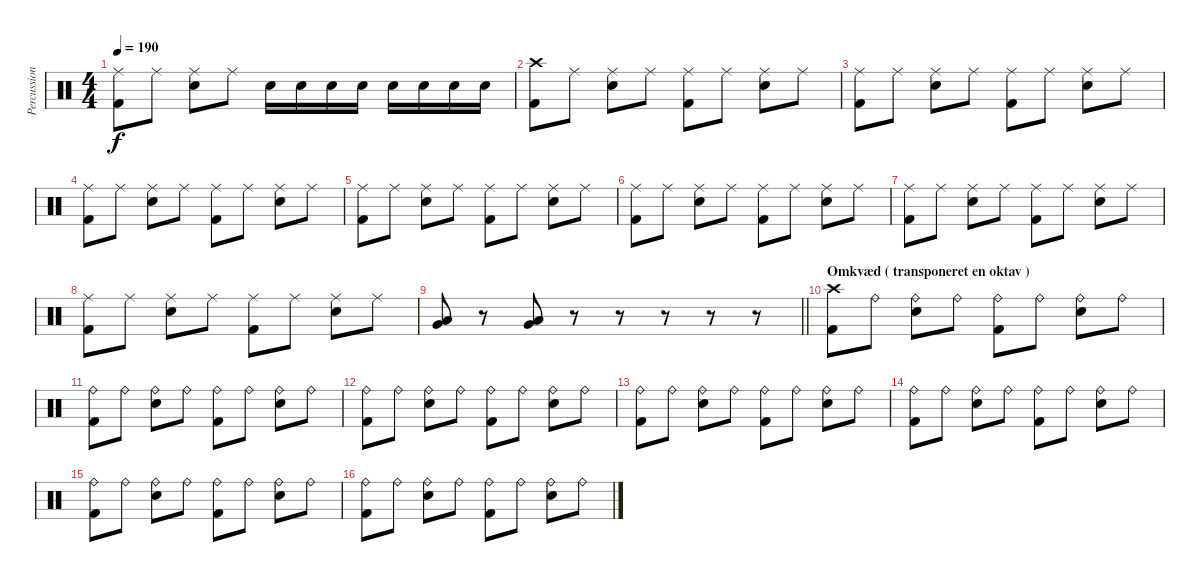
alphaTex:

\track ("Percussion" "Percussion") {instrument percussion}
\staff {score}
\articulation defaults
\ts (4 4)
\tempo 190
\clef neutral
\ks c
("Kick (hit) 2" "Ride (middle)").8{dy f} "Ride (middle)".8 ("Ride (middle)" "Snare (hit) 2").8 "Ride (middle)".8 "Snare (hit) 2".16 "Snare (hit) 2".16 "Snare (hit) 2".16 "Snare (hit) 2".16 "Snare (hit) 2".16 "Snare (hit) 2".16 "Snare (hit) 2".16 "Snare (hit) 2".16 |
("Kick (hit) 2" "Crash high (hit)").8 "Ride (middle)".8 ("Ride (middle)" "Snare (hit) 2").8 "Ride (middle)".8 ("Kick (hit) 2" "Ride (middle)").8 "Ride (middle)".8 ("Ride (middle)" "Snare (hit) 2").8 "Ride (middle)".8 |
("Kick (hit) 2" "Ride (middle)").8 "Ride (middle)".8 ("Ride (middle)" "Snare (hit) 2").8 "Ride (middle)".8 ("Kick (hit) 2" "Ride (middle)").8 "Ride (middle)".8 ("Ride (middle)" "Snare (hit) 2").8 "Ride (middle)".8 |
("Kick (hit) 2" "Ride (middle)").8 "Ride (middle)".8 ("Ride (middle)" "Snare (hit) 2").8 "Ride (middle)".8 ("Kick (hit) 2" "Ride (middle)").8 "Ride (middle)".8 ("Ride (middle)" "Snare (hit) 2").8 "Ride (middle)".8 |
("Kick (hit) 2" "Ride (middle)").8 "Ride (middle)".8 ("Ride (middle)" "Snare (hit) 2").8 "Ride (middle)".8 ("Kick (hit) 2" "Ride (middle)").8 "Ride (middle)".8 ("Ride (middle)" "Snare (hit) 2").8 "Ride (middle)".8 |
("Kick (hit) 2" "Ride (middle)").8 "Ride (middle)".8 ("Ride (middle)" "Snare (hit) 2").8 "Ride (middle)".8 ("Kick (hit) 2" "Ride (middle)").8 "Ride (middle)".8 ("Ride (middle)" "Snare (hit) 2").8 "Ride (middle)".8 |
("Kick (hit) 2" "Ride (middle)").8 "Ride (middle)".8 ("Ride (middle)" "Snare (hit) 2").8 "Ride (middle)".8 ("Kick (hit) 2" "Ride (middle)").8 "Ride (middle)".8 ("Ride (middle)" "Snare (hit) 2").8 "Ride (middle)".8 |
("Kick (hit) 2" "Ride (middle)").8 "Ride (middle)".8 ("Ride (middle)" "Snare (hit) 2").8 "Ride (middle)".8 ("Kick (hit) 2" "Ride (middle)").8 "Ride (middle)".8 ("Ride (middle)" "Snare (hit) 2").8 "Ride (middle)".8 |
\barLineRight lightlight
("Very Low Tom (hit)" "Low Floor Tom (hit)").8 r.8 ("Very Low Tom (hit)" "Low Floor Tom (hit)").8 r.8 r.8 r.8 r.8 r.8 |
\section ("" "Omkvæd ( transponeret en oktav )")
("Kick (hit) 2" "Crash high (hit)").8 "Ride (bell)".8 ("Ride (bell)" "Snare (hit) 2").8 "Ride (bell)".8 ("Kick (hit) 2" "Ride (bell)").8 "Ride (bell)".8 ("Ride (bell)" "Snare (hit) 2").8 "Ride (bell)".8 |
("Kick (hit) 2" "Ride (bell)").8 "Ride (bell)".8 ("Ride (bell)" "Snare (hit) 2").8 "Ride (bell)".8 ("Kick (hit) 2" "Ride (bell)").8 "Ride (bell)".8 ("Ride (bell)" "Snare (hit) 2").8 "Ride (bell)".8 |
("Kick (hit) 2" "Ride (bell)").8 "Ride (bell)".8 ("Ride (bell)" "Snare (hit) 2").8 "Ride (bell)".8 ("Kick (hit) 2" "Ride (bell)").8 "Ride (bell)".8 ("Ride (bell)" "Snare (hit) 2").8 "Ride (bell)".8 |
("Kick (hit) 2" "Ride (bell)").8 "Ride (bell)".8 ("Ride (bell)" "Snare (hit) 2").8 "Ride (bell)".8 ("Kick (hit) 2" "Ride (bell)").8 "Ride (bell)".8 ("Ride (bell)" "Snare (hit) 2").8 "Ride (bell)".8 |
("Kick (hit) 2" "Ride (bell)").8 "Ride (bell)".8 ("Ride (bell)" "Snare (hit) 2").8 "Ride (bell)".8 ("Kick (hit) 2" "Ride (bell)").8 "Ride (bell)".8 ("Ride (bell)" "Snare (hit) 2").8 "Ride (bell)".8 |
("Kick (hit) 2" "Ride (bell)").8 "Ride (bell)".8 ("Ride (bell)" "Snare (hit) 2").8 "Ride (bell)".8 ("Kick (hit) 2" "Ride (bell)").8 "Ride (bell)".8 ("Ride (bell)" "Snare (hit) 2").8 "Ride (bell)".8 |
("Kick (hit) 2" "Ride (bell)").8 "Ride (bell)".8 ("Ride (bell)" "Snare (hit) 2").8 "Ride (bell)".8 ("Kick (hit) 2" "Ride (bell)").8 "Ride (bell)".8 ("Ride (bell)" "Snare (hit) 2").8 "Ride (bell)".8
